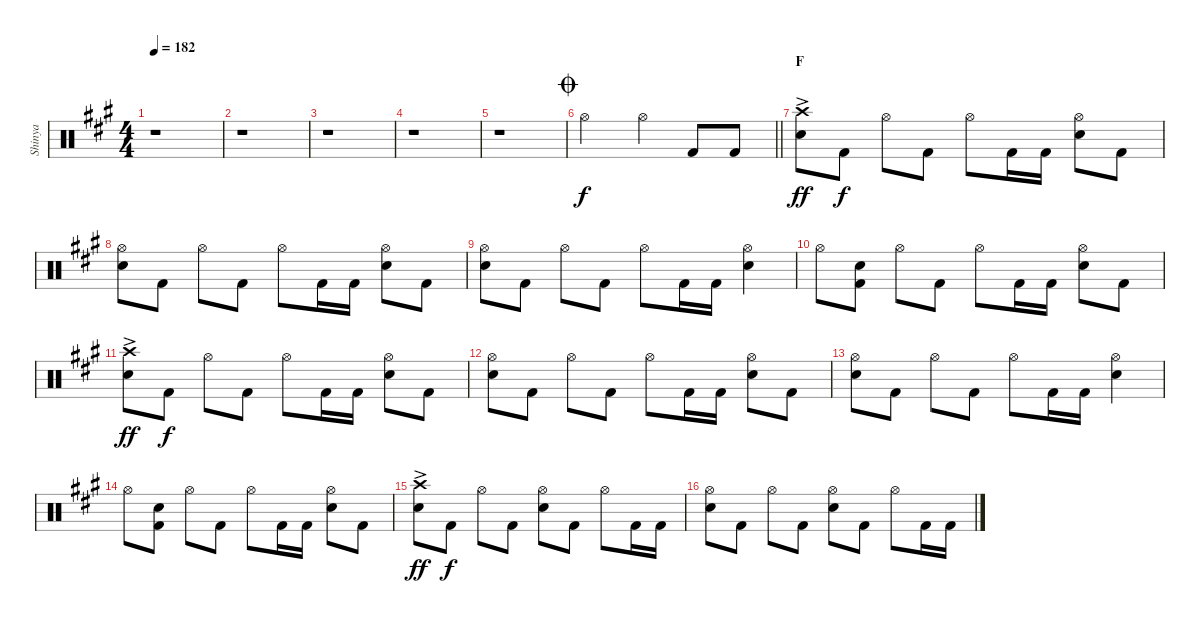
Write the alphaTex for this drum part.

\track ("Shinya" "Shinya") {instrument percussion}
\staff {score}
\articulation defaults
\ts (4 4)
\tempo 182
\clef neutral
\ks a
r.1{dy f} |
r.1 |
r.1 |
r.1 |
r.1 |
\jump coda
\barLineRight lightlight "Hi-Hat (open)".2 "Hi-Hat (open)".4 "Kick (hit) 2".8 "Kick (hit) 2".8
|
\section ("" "F")
("Crash high (hit)"{ac} "Snare (hit) 2").8{dy ff} "Kick (hit) 2".8{dy f} "Hi-Hat (open)".8 "Kick (hit) 2".8 "Hi-Hat (open)".8 "Kick (hit) 2".16 "Kick (hit) 2".16 ("Hi-Hat (open)" "Snare (hit) 2").8 "Kick (hit) 2".8 |
("Hi-Hat (open)" "Snare (hit) 2").8 "Kick (hit) 2".8 "Hi-Hat (open)".8 "Kick (hit) 2".8 "Hi-Hat (open)".8 "Kick (hit) 2".16 "Kick (hit) 2".16 ("Hi-Hat (open)" "Snare (hit) 2").8 "Kick (hit) 2".8 |
("Hi-Hat (open)" "Snare (hit) 2").8 "Kick (hit) 2".8 "Hi-Hat (open)".8 "Kick (hit) 2".8 "Hi-Hat (open)".8 "Kick (hit) 2".16 "Kick (hit) 2".16 ("Hi-Hat (open)" "Snare (hit) 2").4 |
"Hi-Hat (open)".8 ("Snare (hit) 2" "Kick (hit) 2").8 "Hi-Hat (open)".8 "Kick (hit) 2".8 "Hi-Hat (open)".8 "Kick (hit) 2".16 "Kick (hit) 2".16 ("Hi-Hat (open)" "Snare (hit) 2").8 "Kick (hit) 2".8 |
("Crash high (hit)"{ac} "Snare (hit) 2").8{dy ff} "Kick (hit) 2".8{dy f} "Hi-Hat (open)".8 "Kick (hit) 2".8 "Hi-Hat (open)".8 "Kick (hit) 2".16 "Kick (hit) 2".16 ("Hi-Hat (open)" "Snare (hit) 2").8 "Kick (hit) 2".8 |
("Hi-Hat (open)" "Snare (hit) 2").8 "Kick (hit) 2".8 "Hi-Hat (open)".8 "Kick (hit) 2".8 "Hi-Hat (open)".8 "Kick (hit) 2".16 "Kick (hit) 2".16 ("Hi-Hat (open)" "Snare (hit) 2").8 "Kick (hit) 2".8 |
("Hi-Hat (open)" "Snare (hit) 2").8 "Kick (hit) 2".8 "Hi-Hat (open)".8 "Kick (hit) 2".8 "Hi-Hat (open)".8 "Kick (hit) 2".16 "Kick (hit) 2".16 ("Hi-Hat (open)" "Snare (hit) 2").4 |
"Hi-Hat (open)".8 ("Snare (hit) 2" "Kick (hit) 2").8 "Hi-Hat (open)".8 "Kick (hit) 2".8 "Hi-Hat (open)".8 "Kick (hit) 2".16 "Kick (hit) 2".16 ("Hi-Hat (open)" "Snare (hit) 2").8 "Kick (hit) 2".8 |
("Crash high (hit)"{ac} "Snare (hit) 2").8{dy ff} "Kick (hit) 2".8{dy f} "Hi-Hat (open)".8 "Kick (hit) 2".8 ("Hi-Hat (open)" "Snare (hit) 2").8 "Kick (hit) 2".8 "Hi-Hat (open)".8 "Kick (hit) 2".16 "Kick (hit) 2".16 |
("Hi-Hat (open)" "Snare (hit) 2").8 "Kick (hit) 2".8 "Hi-Hat (open)".8 "Kick (hit) 2".8 ("Hi-Hat (open)" "Snare (hit) 2").8 "Kick (hit) 2".8 "Hi-Hat (open)".8 "Kick (hit) 2".16 "Kick (hit) 2".16
